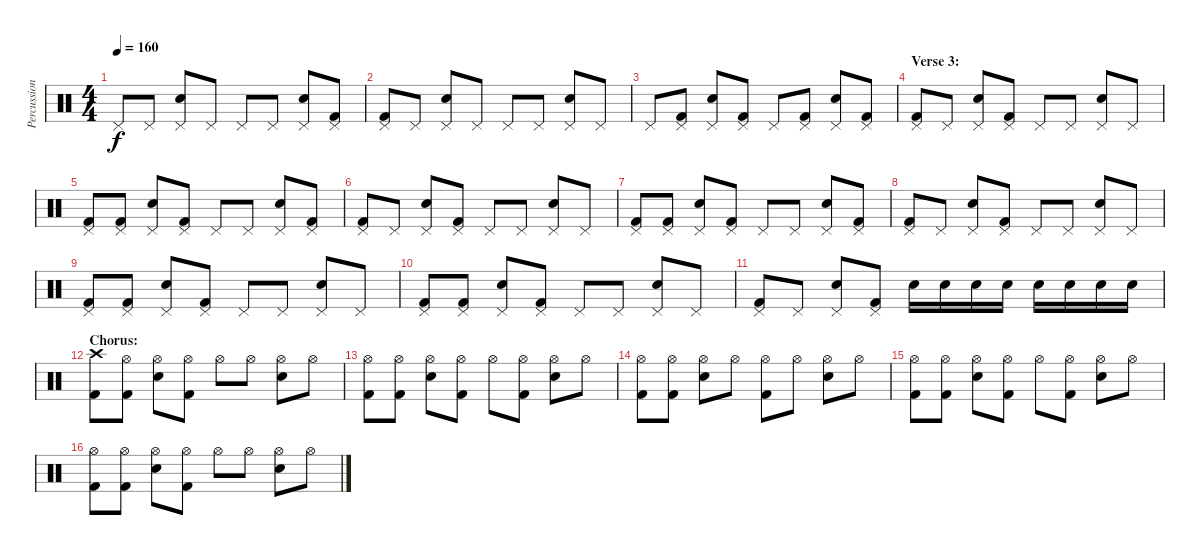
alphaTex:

\track ("Percussion" "Percussion") {instrument percussion}
\staff {score}
\articulation defaults
\ts (4 4)
\tempo 160
\clef neutral
\ks c "Pedal Hi-Hat (hit)".8{dy f} "Pedal Hi-Hat (hit)".8
("Pedal Hi-Hat (hit)" "Snare (hit) 2").8 "Pedal Hi-Hat (hit)".8 "Pedal Hi-Hat (hit)".8 "Pedal Hi-Hat (hit)".8 ("Pedal Hi-Hat (hit)" "Snare (hit) 2").8 ("Pedal Hi-Hat (hit)" "Kick (hit) 2").8 |
("Pedal Hi-Hat (hit)" "Kick (hit) 2").8 "Pedal Hi-Hat (hit)".8 ("Pedal Hi-Hat (hit)" "Snare (hit) 2").8 "Pedal Hi-Hat (hit)".8 "Pedal Hi-Hat (hit)".8 "Pedal Hi-Hat (hit)".8 ("Pedal Hi-Hat (hit)" "Snare (hit) 2").8 "Pedal Hi-Hat (hit)".8 |
"Pedal Hi-Hat (hit)".8 ("Pedal Hi-Hat (hit)" "Kick (hit) 2").8 ("Pedal Hi-Hat (hit)" "Snare (hit) 2").8 ("Pedal Hi-Hat (hit)" "Kick (hit) 2").8 "Pedal Hi-Hat (hit)".8 ("Pedal Hi-Hat (hit)" "Kick (hit) 2").8 ("Pedal Hi-Hat (hit)" "Snare (hit) 2").8 ("Pedal Hi-Hat (hit)" "Kick (hit) 2").8 |
\section ("" "Verse 3:")
("Pedal Hi-Hat (hit)" "Kick (hit) 2").8 "Pedal Hi-Hat (hit)".8 ("Pedal Hi-Hat (hit)" "Snare (hit) 2").8 ("Pedal Hi-Hat (hit)" "Kick (hit) 2").8 "Pedal Hi-Hat (hit)".8 "Pedal Hi-Hat (hit)".8 ("Pedal Hi-Hat (hit)" "Snare (hit) 2").8 "Pedal Hi-Hat (hit)".8 |
("Pedal Hi-Hat (hit)" "Kick (hit) 2").8 ("Pedal Hi-Hat (hit)" "Kick (hit) 2").8 ("Pedal Hi-Hat (hit)" "Snare (hit) 2").8 ("Pedal Hi-Hat (hit)" "Kick (hit) 2").8 "Pedal Hi-Hat (hit)".8 "Pedal Hi-Hat (hit)".8 ("Pedal Hi-Hat (hit)" "Snare (hit) 2").8 ("Pedal Hi-Hat (hit)" "Kick (hit) 2").8 |
("Pedal Hi-Hat (hit)" "Kick (hit) 2").8 "Pedal Hi-Hat (hit)".8 ("Pedal Hi-Hat (hit)" "Snare (hit) 2").8 ("Pedal Hi-Hat (hit)" "Kick (hit) 2").8 "Pedal Hi-Hat (hit)".8 "Pedal Hi-Hat (hit)".8 ("Pedal Hi-Hat (hit)" "Snare (hit) 2").8 "Pedal Hi-Hat (hit)".8 |
("Pedal Hi-Hat (hit)" "Kick (hit) 2").8 ("Pedal Hi-Hat (hit)" "Kick (hit) 2").8 ("Pedal Hi-Hat (hit)" "Snare (hit) 2").8 ("Pedal Hi-Hat (hit)" "Kick (hit) 2").8 "Pedal Hi-Hat (hit)".8 "Pedal Hi-Hat (hit)".8 ("Pedal Hi-Hat (hit)" "Snare (hit) 2").8 ("Pedal Hi-Hat (hit)" "Kick (hit) 2").8 |
("Pedal Hi-Hat (hit)" "Kick (hit) 2").8 "Pedal Hi-Hat (hit)".8 ("Pedal Hi-Hat (hit)" "Snare (hit) 2").8 ("Pedal Hi-Hat (hit)" "Kick (hit) 2").8 "Pedal Hi-Hat (hit)".8 "Pedal Hi-Hat (hit)".8 ("Pedal Hi-Hat (hit)" "Snare (hit) 2").8 "Pedal Hi-Hat (hit)".8 |
("Pedal Hi-Hat (hit)" "Kick (hit) 2").8 ("Pedal Hi-Hat (hit)" "Kick (hit) 2").8 ("Pedal Hi-Hat (hit)" "Snare (hit) 2").8 ("Pedal Hi-Hat (hit)" "Kick (hit) 2").8 "Pedal Hi-Hat (hit)".8 "Pedal Hi-Hat (hit)".8 ("Pedal Hi-Hat (hit)" "Snare (hit) 2").8 "Pedal Hi-Hat (hit)".8 |
("Pedal Hi-Hat (hit)" "Kick (hit) 2").8 ("Pedal Hi-Hat (hit)" "Kick (hit) 2").8 ("Pedal Hi-Hat (hit)" "Snare (hit) 2").8 ("Pedal Hi-Hat (hit)" "Kick (hit) 2").8 "Pedal Hi-Hat (hit)".8 "Pedal Hi-Hat (hit)".8 ("Pedal Hi-Hat (hit)" "Snare (hit) 2").8 "Pedal Hi-Hat (hit)".8 |
("Pedal Hi-Hat (hit)" "Kick (hit) 2").8 "Pedal Hi-Hat (hit)".8 ("Pedal Hi-Hat (hit)" "Snare (hit) 2").8 ("Pedal Hi-Hat (hit)" "Kick (hit) 2").8 "Snare (hit) 2".16 "Snare (hit) 2".16 "Snare (hit) 2".16 "Snare (hit) 2".16 "Snare (hit) 2".16 "Snare (hit) 2".16 "Snare (hit) 2".16 "Snare (hit) 2".16 |
\section ("" "Chorus:")
("Crash high (hit)" "Kick (hit) 2").8 ("Hi-Hat (open)" "Kick (hit) 2").8 ("Hi-Hat (open)" "Snare (hit) 2").8 ("Hi-Hat (open)" "Kick (hit) 2").8 "Hi-Hat (open)".8 "Hi-Hat (open)".8 ("Hi-Hat (open)" "Snare (hit) 2").8 "Hi-Hat (open)".8 |
("Hi-Hat (open)" "Kick (hit) 2").8 ("Hi-Hat (open)" "Kick (hit) 2").8 ("Hi-Hat (open)" "Snare (hit) 2").8 ("Hi-Hat (open)" "Kick (hit) 2").8 "Hi-Hat (open)".8 ("Hi-Hat (open)" "Kick (hit) 2").8 ("Hi-Hat (open)" "Snare (hit) 2").8 "Hi-Hat (open)".8 |
("Hi-Hat (open)" "Kick (hit) 2").8 ("Hi-Hat (open)" "Kick (hit) 2").8 ("Hi-Hat (open)" "Snare (hit) 2").8 "Hi-Hat (open)".8 ("Hi-Hat (open)" "Kick (hit) 2").8 "Hi-Hat (open)".8 ("Hi-Hat (open)" "Snare (hit) 2").8 "Hi-Hat (open)".8 |
("Hi-Hat (open)" "Kick (hit) 2").8 ("Hi-Hat (open)" "Kick (hit) 2").8 ("Hi-Hat (open)" "Snare (hit) 2").8 ("Hi-Hat (open)" "Kick (hit) 2").8 "Hi-Hat (open)".8 ("Hi-Hat (open)" "Kick (hit) 2").8 ("Hi-Hat (open)" "Snare (hit) 2").8 "Hi-Hat (open)".8 |
("Hi-Hat (open)" "Kick (hit) 2").8 ("Hi-Hat (open)" "Kick (hit) 2").8 ("Hi-Hat (open)" "Snare (hit) 2").8 ("Hi-Hat (open)" "Kick (hit) 2").8 "Hi-Hat (open)".8 "Hi-Hat (open)".8 ("Hi-Hat (open)" "Snare (hit) 2").8 "Hi-Hat (open)".8
